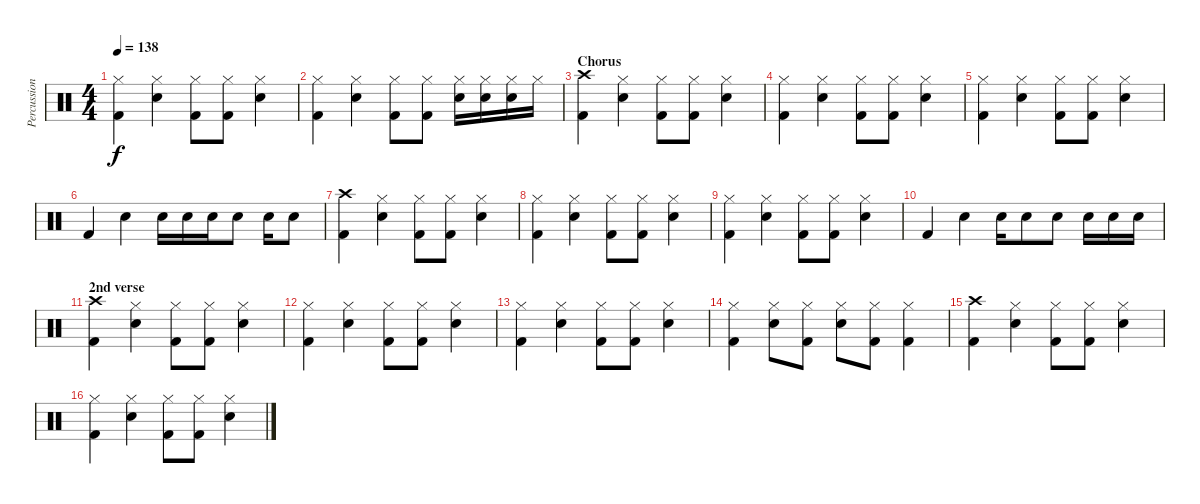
\track ("Percussion" "Percussion") {instrument percussion}
\staff {score}
\articulation defaults
\ts (4 4)
\tempo 138
\clef neutral
\ks c
("Kick (hit) 2" "Hi-Hat (closed)").4{dy f} ("Electric Snare (hit)" "Hi-Hat (closed)").4 ("Kick (hit) 2" "Hi-Hat (closed)").8 ("Kick (hit) 2" "Hi-Hat (closed)").8 ("Electric Snare (hit)" "Hi-Hat (closed)").4 |
("Kick (hit) 2" "Hi-Hat (closed)").4 ("Electric Snare (hit)" "Hi-Hat (closed)").4 ("Kick (hit) 2" "Hi-Hat (closed)").8 ("Kick (hit) 2" "Hi-Hat (closed)").8 ("Electric Snare (hit)" "Hi-Hat (closed)").16 ("Electric Snare (hit)" "Hi-Hat (closed)").16 ("Electric Snare (hit)" "Hi-Hat (closed)").16 "Hi-Hat (closed)".16 |
\section ("" "Chorus")
("Kick (hit) 2" "Crash high (hit)").4 ("Electric Snare (hit)" "Hi-Hat (closed)").4 ("Kick (hit) 2" "Hi-Hat (closed)").8 ("Kick (hit) 2" "Hi-Hat (closed)").8 ("Electric Snare (hit)" "Hi-Hat (closed)").4 |
("Kick (hit) 2" "Hi-Hat (closed)").4 ("Electric Snare (hit)" "Hi-Hat (closed)").4 ("Kick (hit) 2" "Hi-Hat (closed)").8 ("Kick (hit) 2" "Hi-Hat (closed)").8 ("Electric Snare (hit)" "Hi-Hat (closed)").4 |
("Kick (hit) 2" "Hi-Hat (closed)").4 ("Electric Snare (hit)" "Hi-Hat (closed)").4 ("Kick (hit) 2" "Hi-Hat (closed)").8 ("Kick (hit) 2" "Hi-Hat (closed)").8 ("Electric Snare (hit)" "Hi-Hat (closed)").4 |
"Kick (hit) 2".4 "Electric Snare (hit)".4 "Electric Snare (hit)".16 "Electric Snare (hit)".16 "Electric Snare (hit)".16 "Electric Snare (hit)".8 "Electric Snare (hit)".16 "Electric Snare (hit)".8 |
("Kick (hit) 2" "Crash high (hit)").4 ("Electric Snare (hit)" "Hi-Hat (closed)").4 ("Kick (hit) 2" "Hi-Hat (closed)").8 ("Kick (hit) 2" "Hi-Hat (closed)").8 ("Electric Snare (hit)" "Hi-Hat (closed)").4 |
("Kick (hit) 2" "Hi-Hat (closed)").4 ("Electric Snare (hit)" "Hi-Hat (closed)").4 ("Kick (hit) 2" "Hi-Hat (closed)").8 ("Kick (hit) 2" "Hi-Hat (closed)").8 ("Electric Snare (hit)" "Hi-Hat (closed)").4 |
("Kick (hit) 2" "Hi-Hat (closed)").4 ("Electric Snare (hit)" "Hi-Hat (closed)").4 ("Kick (hit) 2" "Hi-Hat (closed)").8 ("Kick (hit) 2" "Hi-Hat (closed)").8 ("Electric Snare (hit)" "Hi-Hat (closed)").4 |
"Kick (hit) 2".4 "Electric Snare (hit)".4 "Electric Snare (hit)".16 "Electric Snare (hit)".8 "Electric Snare (hit)".8 "Electric Snare (hit)".16 "Electric Snare (hit)".16 "Electric Snare (hit)".16 |
\section ("" "2nd verse")
("Kick (hit) 2" "Crash high (hit)").4 ("Electric Snare (hit)" "Hi-Hat (closed)").4 ("Kick (hit) 2" "Hi-Hat (closed)").8 ("Kick (hit) 2" "Hi-Hat (closed)").8 ("Electric Snare (hit)" "Hi-Hat (closed)").4 |
("Kick (hit) 2" "Hi-Hat (closed)").4 ("Electric Snare (hit)" "Hi-Hat (closed)").4 ("Kick (hit) 2" "Hi-Hat (closed)").8 ("Kick (hit) 2" "Hi-Hat (closed)").8 ("Electric Snare (hit)" "Hi-Hat (closed)").4 |
("Kick (hit) 2" "Hi-Hat (closed)").4 ("Electric Snare (hit)" "Hi-Hat (closed)").4 ("Kick (hit) 2" "Hi-Hat (closed)").8 ("Kick (hit) 2" "Hi-Hat (closed)").8 ("Electric Snare (hit)" "Hi-Hat (closed)").4 |
("Kick (hit) 2" "Hi-Hat (closed)").4 ("Electric Snare (hit)" "Hi-Hat (closed)").8 ("Kick (hit) 2" "Hi-Hat (closed)").8 ("Electric Snare (hit)" "Hi-Hat (closed)").8 ("Kick (hit) 2" "Hi-Hat (closed)").8 ("Kick (hit) 2" "Hi-Hat (closed)").4 |
("Kick (hit) 2" "Crash high (hit)").4 ("Electric Snare (hit)" "Hi-Hat (closed)").4 ("Kick (hit) 2" "Hi-Hat (closed)").8 ("Kick (hit) 2" "Hi-Hat (closed)").8 ("Electric Snare (hit)" "Hi-Hat (closed)").4 |
("Kick (hit) 2" "Hi-Hat (closed)").4 ("Electric Snare (hit)" "Hi-Hat (closed)").4 ("Kick (hit) 2" "Hi-Hat (closed)").8 ("Kick (hit) 2" "Hi-Hat (closed)").8 ("Electric Snare (hit)" "Hi-Hat (closed)").4
